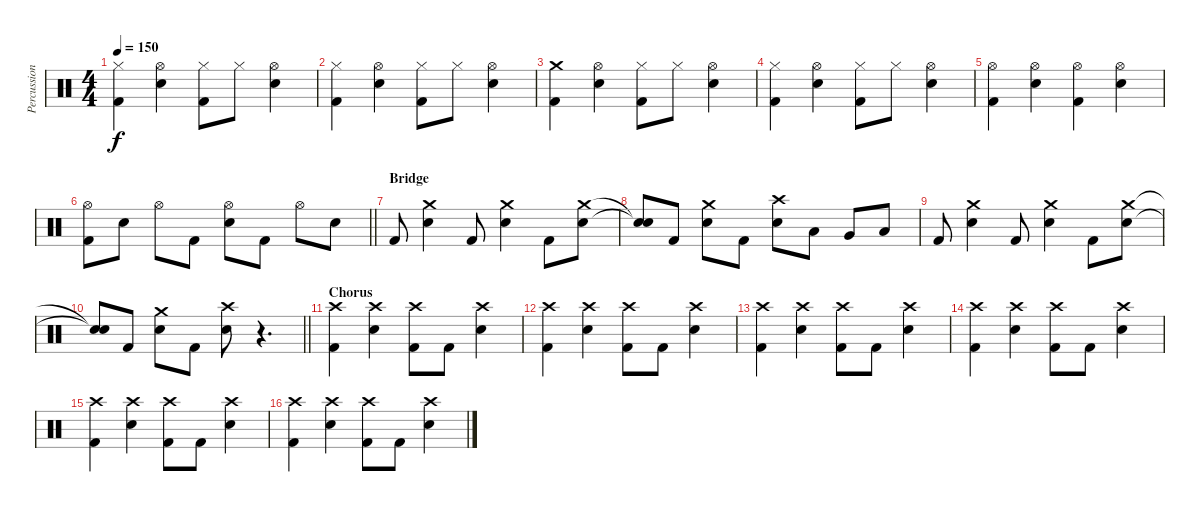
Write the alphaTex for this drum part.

\track ("Percussion" "Percussion") {instrument percussion}
\staff {score}
\articulation defaults
\ts (4 4)
\tempo 150
\clef neutral
\ks c
("Hi-Hat (closed)" "Kick (hit) 2").4{dy f} ("Hi-Hat (open)" "Electric Snare (hit)").4 ("Hi-Hat (closed)" "Kick (hit) 2").8 "Hi-Hat (closed)".8 ("Hi-Hat (open)" "Electric Snare (hit)").4 |
("Hi-Hat (closed)" "Kick (hit) 2").4 ("Hi-Hat (open)" "Electric Snare (hit)").4 ("Hi-Hat (closed)" "Kick (hit) 2").8 "Hi-Hat (closed)".8 ("Hi-Hat (open)" "Electric Snare (hit)").4 |
("Crash medium (hit)" "Kick (hit) 2").4 ("Hi-Hat (open)" "Electric Snare (hit)").4 ("Hi-Hat (closed)" "Kick (hit) 2").8 "Hi-Hat (closed)".8 ("Hi-Hat (open)" "Electric Snare (hit)").4 |
("Hi-Hat (closed)" "Kick (hit) 2").4 ("Hi-Hat (open)" "Electric Snare (hit)").4 ("Hi-Hat (closed)" "Kick (hit) 2").8 "Hi-Hat (closed)".8 ("Hi-Hat (open)" "Electric Snare (hit)").4 |
("Hi-Hat (open)" "Kick (hit) 2").4 ("Hi-Hat (open)" "Electric Snare (hit)").4 ("Hi-Hat (open)" "Kick (hit) 2").4 ("Hi-Hat (open)" "Electric Snare (hit)").4 |
\barLineRight lightlight
("Hi-Hat (open)" "Kick (hit) 2").8 "Electric Snare (hit)".8 "Hi-Hat (open)".8 "Kick (hit) 2".8 ("Hi-Hat (open)" "Electric Snare (hit)").8 "Kick (hit) 2".8 "Hi-Hat (open)".8 "Electric Snare (hit)".8 |
\section ("" "Bridge")
"Kick (hit) 2".8 ("Crash medium (hit)" "Electric Snare (hit)").4 "Kick (hit) 2".8 ("Crash medium (hit)" "Electric Snare (hit)").4 "Kick (hit) 2".8 ("Crash medium (hit)" "Electric Snare (hit)").8 |
("Snare (hit)"{t} "Snare (hit)"{t}).8 "Kick (hit) 2".8 ("Crash medium (hit)" "Electric Snare (hit)").8 "Kick (hit) 2".8 ("Crash high (hit)" "Electric Snare (hit)").8 "Low Tom (hit)".8 "Very Low Tom (hit)".8 "Low Floor Tom (hit)".8 |
"Kick (hit) 2".8 ("Crash medium (hit)" "Electric Snare (hit)").4 "Kick (hit) 2".8 ("Crash medium (hit)" "Electric Snare (hit)").4 "Kick (hit) 2".8 ("Crash medium (hit)" "Electric Snare (hit)").8 |
\barLineRight lightlight
("Snare (hit)"{t} "Snare (hit)"{t}).8 "Kick (hit) 2".8 ("Crash medium (hit)" "Electric Snare (hit)").8 "Kick (hit) 2".8 ("Crash high (hit)" "Electric Snare (hit)").8 r.4{d} |
\section ("" "Chorus")
("Crash high (hit)" "Kick (hit) 2").4 ("Crash high (hit)" "Electric Snare (hit)").4 ("Crash high (hit)" "Kick (hit) 2").8 "Kick (hit) 2".8 ("Crash high (hit)" "Electric Snare (hit)").4 |
("Crash high (hit)" "Kick (hit) 2").4 ("Crash high (hit)" "Electric Snare (hit)").4 ("Crash high (hit)" "Kick (hit) 2").8 "Kick (hit) 2".8 ("Crash high (hit)" "Electric Snare (hit)").4 |
("Crash high (hit)" "Kick (hit) 2").4 ("Crash high (hit)" "Electric Snare (hit)").4 ("Crash high (hit)" "Kick (hit) 2").8 "Kick (hit) 2".8 ("Crash high (hit)" "Electric Snare (hit)").4 |
("Crash high (hit)" "Kick (hit) 2").4 ("Crash high (hit)" "Electric Snare (hit)").4 ("Crash high (hit)" "Kick (hit) 2").8 "Kick (hit) 2".8 ("Crash high (hit)" "Electric Snare (hit)").4 |
("Crash high (hit)" "Kick (hit) 2").4 ("Crash high (hit)" "Electric Snare (hit)").4 ("Crash high (hit)" "Kick (hit) 2").8 "Kick (hit) 2".8 ("Crash high (hit)" "Electric Snare (hit)").4 |
("Crash high (hit)" "Kick (hit) 2").4 ("Crash high (hit)" "Electric Snare (hit)").4 ("Crash high (hit)" "Kick (hit) 2").8 "Kick (hit) 2".8 ("Crash high (hit)" "Electric Snare (hit)").4
